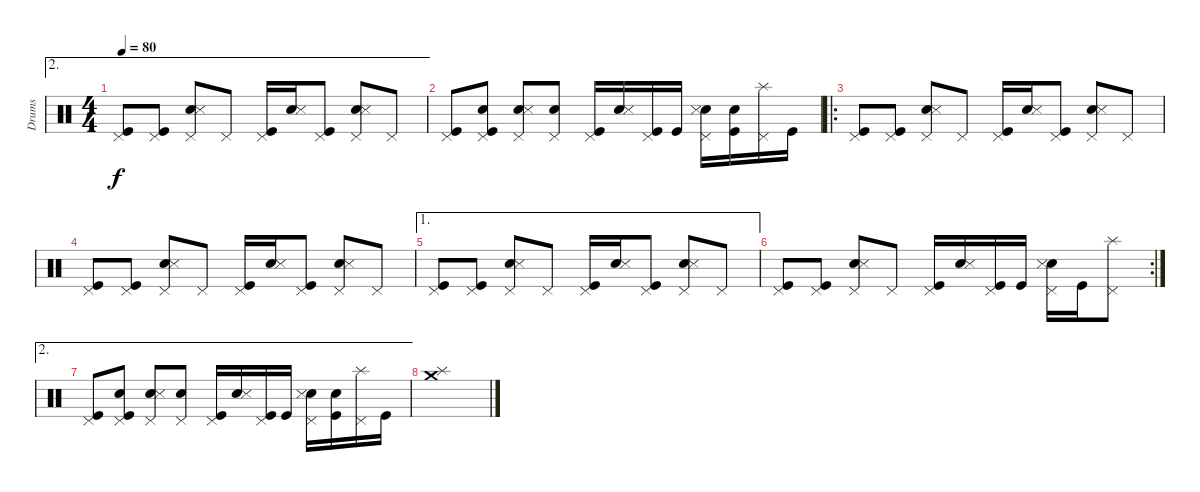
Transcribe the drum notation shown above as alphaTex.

\track ("Drums" "Drums") {instrument percussion}
\staff {score}
\articulation defaults
\ae 2
\ts (4 4)
\tempo 80
\clef neutral
\ks c
("Pedal Hi-Hat (hit)" "Kick (hit)").8{dy f} ("Pedal Hi-Hat (hit)" "Kick (hit)").8 ("Pedal Hi-Hat (hit)" "Electric Snare (hit)" "Metronome (hit)").8 "Pedal Hi-Hat (hit)".8 ("Pedal Hi-Hat (hit)" "Kick (hit)").16 ("Snare (hit) 2" "Metronome (hit)").16 ("Pedal Hi-Hat (hit)" "Kick (hit)").8 ("Pedal Hi-Hat (hit)" "Electric Snare (hit)" "Metronome (hit)").8 "Pedal Hi-Hat (hit)".8 |
("Pedal Hi-Hat (hit)" "Kick (hit)").8 ("Pedal Hi-Hat (hit)" "Kick (hit)" "Electric Snare (hit)").8 ("Pedal Hi-Hat (hit)" "Snare (hit) 2" "Metronome (hit)").8 ("Pedal Hi-Hat (hit)" "Electric Snare (hit)").8 ("Pedal Hi-Hat (hit)" "Kick (hit)").16 ("Snare (hit) 2" "Metronome (hit)").16 ("Pedal Hi-Hat (hit)" "Kick (hit)").16 "Kick (hit)".16 ("Pedal Hi-Hat (hit)" "Snare (hit) 2" "Metronome (hit)").16 ("Kick (hit)" "Snare (hit) 2").16 ("Pedal Hi-Hat (hit)" "Splash (hit)").16 "Kick (hit)".16 |
\ro
("Pedal Hi-Hat (hit)" "Kick (hit)").8 ("Pedal Hi-Hat (hit)" "Kick (hit)").8 ("Pedal Hi-Hat (hit)" "Electric Snare (hit)" "Metronome (hit)").8 "Pedal Hi-Hat (hit)".8 ("Pedal Hi-Hat (hit)" "Kick (hit)").16 ("Snare (hit) 2" "Metronome (hit)").16 ("Pedal Hi-Hat (hit)" "Kick (hit)").8 ("Pedal Hi-Hat (hit)" "Electric Snare (hit)" "Metronome (hit)").8 "Pedal Hi-Hat (hit)".8 |
("Pedal Hi-Hat (hit)" "Kick (hit)").8 ("Pedal Hi-Hat (hit)" "Kick (hit)").8 ("Pedal Hi-Hat (hit)" "Electric Snare (hit)" "Metronome (hit)").8 "Pedal Hi-Hat (hit)".8 ("Pedal Hi-Hat (hit)" "Kick (hit)").16 ("Snare (hit) 2" "Metronome (hit)").16 ("Pedal Hi-Hat (hit)" "Kick (hit)").8 ("Pedal Hi-Hat (hit)" "Electric Snare (hit)" "Metronome (hit)").8 "Pedal Hi-Hat (hit)".8 |
\ae 1
("Pedal Hi-Hat (hit)" "Kick (hit)").8 ("Pedal Hi-Hat (hit)" "Kick (hit)").8 ("Pedal Hi-Hat (hit)" "Electric Snare (hit)" "Metronome (hit)").8 "Pedal Hi-Hat (hit)".8 ("Pedal Hi-Hat (hit)" "Kick (hit)").16 ("Snare (hit) 2" "Metronome (hit)").16 ("Pedal Hi-Hat (hit)" "Kick (hit)").8 ("Pedal Hi-Hat (hit)" "Electric Snare (hit)" "Metronome (hit)").8 "Pedal Hi-Hat (hit)".8 |
\rc 2
("Pedal Hi-Hat (hit)" "Kick (hit)").8 ("Pedal Hi-Hat (hit)" "Kick (hit)").8 ("Pedal Hi-Hat (hit)" "Snare (hit) 2" "Metronome (hit)").8 "Pedal Hi-Hat (hit)".8 ("Pedal Hi-Hat (hit)" "Kick (hit)").16 ("Snare (hit) 2" "Metronome (hit)").16 ("Pedal Hi-Hat (hit)" "Kick (hit)").16 "Kick (hit)".16 ("Pedal Hi-Hat (hit)" "Snare (hit) 2" "Metronome (hit)").16 "Kick (hit)".16 ("Pedal Hi-Hat (hit)" "Splash (hit)").8 |
\ae 2
("Pedal Hi-Hat (hit)" "Kick (hit)").8 ("Pedal Hi-Hat (hit)" "Kick (hit)" "Electric Snare (hit)").8 ("Pedal Hi-Hat (hit)" "Snare (hit) 2" "Metronome (hit)").8 ("Pedal Hi-Hat (hit)" "Electric Snare (hit)").8 ("Pedal Hi-Hat (hit)" "Kick (hit)").16 ("Snare (hit) 2" "Metronome (hit)").16 ("Pedal Hi-Hat (hit)" "Kick (hit)").16 "Kick (hit)".16 ("Pedal Hi-Hat (hit)" "Snare (hit) 2" "Metronome (hit)").16 ("Kick (hit)" "Snare (hit) 2").16 ("Pedal Hi-Hat (hit)" "Splash (hit)").16 "Kick (hit)".16 |
("Splash (hit)" "Crash medium (hit)").1
